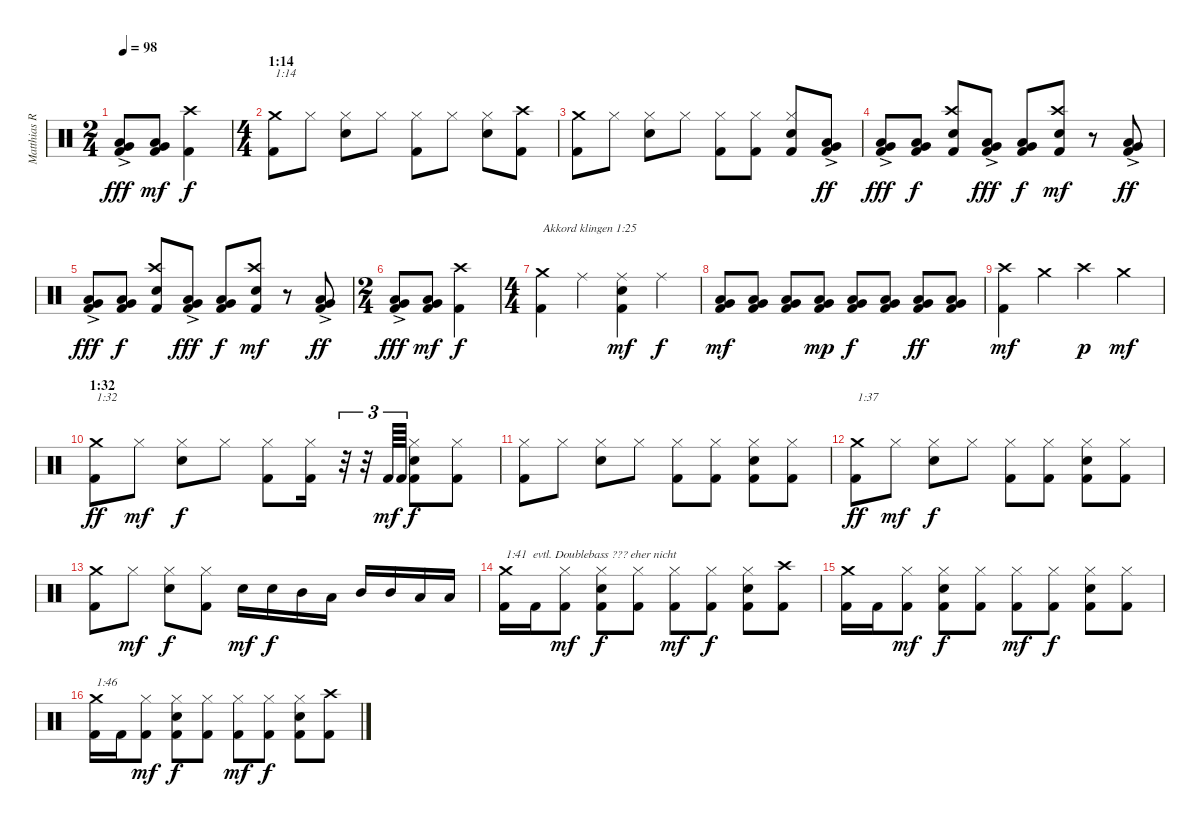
\track ("Matthias R." "Matthias R") {instrument percussion}
\staff {score}
\articulation defaults
\ts (2 4)
\tempo 98
\clef neutral
\ks c
("Kick (hit) 2" "Very Low Tom (hit)"{ac} "Low Tom (hit)"{ac}).8{dy fff} ("Kick (hit) 2" "Very Low Tom (hit)" "Low Tom (hit)").8{dy mf} ("Kick (hit) 2" "Crash high (hit)").4{dy f} |
\ts (4 4)
\section ("" "1:14")
("Kick (hit) 2" "Crash medium (hit)").8{txt "1:14"} "Hi-Hat (closed)".8 ("Electric Snare (hit)" "Hi-Hat (closed)").8 "Hi-Hat (closed)".8 ("Kick (hit) 2" "Hi-Hat (closed)").8 "Hi-Hat (closed)".8 ("Electric Snare (hit)" "Hi-Hat (closed)").8 ("Kick (hit) 2" "Crash high (hit)").8 |
("Kick (hit) 2" "Crash medium (hit)").8 "Hi-Hat (closed)".8 ("Electric Snare (hit)" "Hi-Hat (closed)").8 "Hi-Hat (closed)".8 ("Kick (hit) 2" "Hi-Hat (closed)").8 ("Kick (hit) 2" "Hi-Hat (closed)").8 ("Kick (hit) 2" "Electric Snare (hit)" "Hi-Hat (closed)").8 ("Kick (hit) 2" "Very Low Tom (hit)"{ac} "Low Tom (hit)"{ac}).8{dy ff} |
("Kick (hit) 2" "Very Low Tom (hit)"{ac} "Low Tom (hit)"{ac}).8{dy fff} ("Kick (hit) 2" "Very Low Tom (hit)" "Low Tom (hit)").8{dy f} ("Kick (hit) 2" "Electric Snare (hit)" "Crash high (hit)").8 ("Kick (hit) 2" "Very Low Tom (hit)"{ac} "Low Tom (hit)"{ac}).8{dy fff} ("Kick (hit) 2" "Very Low Tom (hit)" "Low Tom (hit)").8{dy f} ("Kick (hit) 2" "Electric Snare (hit)" "Crash high (hit)").8{dy mf} r.8 ("Kick (hit) 2" "Very Low Tom (hit)"{ac} "Low Tom (hit)"{ac}).8{dy ff} |
("Kick (hit) 2" "Very Low Tom (hit)"{ac} "Low Tom (hit)"{ac}).8{dy fff} ("Kick (hit) 2" "Very Low Tom (hit)" "Low Tom (hit)").8{dy f} ("Kick (hit) 2" "Electric Snare (hit)" "Crash high (hit)").8 ("Kick (hit) 2" "Very Low Tom (hit)"{ac} "Low Tom (hit)"{ac}).8{dy fff} ("Kick (hit) 2" "Very Low Tom (hit)" "Low Tom (hit)").8{dy f} ("Kick (hit) 2" "Electric Snare (hit)" "Crash high (hit)").8{dy mf} r.8 ("Kick (hit) 2" "Very Low Tom (hit)"{ac} "Low Tom (hit)"{ac}).8{dy ff} |
\ts (2 4)
("Kick (hit) 2" "Very Low Tom (hit)"{ac} "Low Tom (hit)"{ac}).8{dy fff} ("Kick (hit) 2" "Very Low Tom (hit)" "Low Tom (hit)").8{dy mf} ("Kick (hit) 2" "Crash high (hit)").4{dy f} |
\ts (4 4)
("Kick (hit) 2" "Crash medium (hit)").4{txt "Akkord klingen 1:25"} "Ride (middle)".4 ("Kick (hit) 2" "Electric Snare (hit)" "Ride (middle)").4{dy mf} "Ride (middle)".4{dy f} |
("Kick (hit) 2" "Very Low Tom (hit)" "Low Tom (hit)").8{dy mf} ("Kick (hit) 2" "Very Low Tom (hit)" "Low Tom (hit)").8 ("Kick (hit) 2" "Very Low Tom (hit)" "Low Tom (hit)").8 ("Kick (hit) 2" "Very Low Tom (hit)" "Low Tom (hit)").8{dy mp} ("Kick (hit) 2" "Very Low Tom (hit)" "Low Tom (hit)").8{dy f} ("Kick (hit) 2" "Very Low Tom (hit)" "Low Tom (hit)").8 ("Kick (hit) 2" "Very Low Tom (hit)" "Low Tom (hit)").8{dy ff} ("Kick (hit) 2" "Very Low Tom (hit)" "Low Tom (hit)").8 |
("Kick (hit) 2" "Crash high (hit)").4{dy mf} "Crash medium (hit)".4 "Crash high (hit)".4{dy p} "Crash medium (hit)".4{dy mf} |
\section ("" "1:32")
("Kick (hit) 2" "Crash medium (hit)").8{txt "1:32" dy ff} "Hi-Hat (closed)".8{dy mf} ("Electric Snare (hit)" "Hi-Hat (closed)").8{dy f} "Hi-Hat (closed)".8 ("Kick (hit) 2" "Hi-Hat (closed)").8 ("Kick (hit) 2" "Hi-Hat (closed)").16 r.32{tu (3 2)} r.32{tu (3 2)} "Kick (hit) 2".64{tu (3 2) dy mf} "Kick (hit) 2".64{tu (3 2)} ("Kick (hit) 2" "Electric Snare (hit)" "Hi-Hat (closed)").8{dy f} ("Kick (hit) 2" "Hi-Hat (closed)").8 |
("Kick (hit) 2" "Hi-Hat (closed)").8 "Hi-Hat (closed)".8 ("Electric Snare (hit)" "Hi-Hat (closed)").8 "Hi-Hat (closed)".8 ("Kick (hit) 2" "Hi-Hat (closed)").8 ("Kick (hit) 2" "Hi-Hat (closed)").8 ("Kick (hit) 2" "Electric Snare (hit)" "Hi-Hat (closed)").8 ("Kick (hit) 2" "Hi-Hat (closed)").8 |
("Kick (hit) 2" "Crash medium (hit)").8{txt "1:37" dy ff} "Hi-Hat (closed)".8{dy mf} ("Electric Snare (hit)" "Hi-Hat (closed)").8{dy f} "Hi-Hat (closed)".8 ("Kick (hit) 2" "Hi-Hat (closed)").8 ("Kick (hit) 2" "Hi-Hat (closed)").8 ("Kick (hit) 2" "Electric Snare (hit)" "Hi-Hat (closed)").8 ("Kick (hit) 2" "Hi-Hat (closed)").8 |
("Kick (hit) 2" "Crash medium (hit)").8 "Hi-Hat (closed)".8{dy mf} ("Electric Snare (hit)" "Hi-Hat (closed)").8{dy f} ("Kick (hit) 2" "Hi-Hat (closed)").8 "Electric Snare (hit)".16{dy mf} "Electric Snare (hit)".16{dy f} "Mid Tom (hit)".16 "Low Tom (hit)".16 "Mid Tom (hit)".16 "Mid Tom (hit)".16 "Low Tom (hit)".16 "Low Tom (hit)".16 |
("Kick (hit) 2" "Crash medium (hit)").16{txt "1:41  evtl. Doublebass ??? eher nicht"} "Kick (hit) 2".16 ("Kick (hit) 2" "Hi-Hat (closed)").8{dy mf} ("Kick (hit) 2" "Electric Snare (hit)" "Hi-Hat (closed)").8{dy f} ("Kick (hit) 2" "Hi-Hat (closed)").8 ("Kick (hit) 2" "Hi-Hat (closed)").8{dy mf} ("Kick (hit) 2" "Hi-Hat (closed)").8{dy f} ("Kick (hit) 2" "Electric Snare (hit)" "Hi-Hat (closed)").8 ("Kick (hit) 2" "Crash high (hit)").8 |
("Kick (hit) 2" "Crash medium (hit)").16 "Kick (hit) 2".16 ("Kick (hit) 2" "Hi-Hat (closed)").8{dy mf} ("Kick (hit) 2" "Electric Snare (hit)" "Hi-Hat (closed)").8{dy f} ("Kick (hit) 2" "Hi-Hat (closed)").8 ("Kick (hit) 2" "Hi-Hat (closed)").8{dy mf} ("Kick (hit) 2" "Hi-Hat (closed)").8{dy f} ("Kick (hit) 2" "Electric Snare (hit)" "Hi-Hat (closed)").8 ("Kick (hit) 2" "Hi-Hat (closed)").8 |
("Kick (hit) 2" "Crash medium (hit)").16{txt "1:46"} "Kick (hit) 2".16 ("Kick (hit) 2" "Hi-Hat (closed)").8{dy mf} ("Kick (hit) 2" "Electric Snare (hit)" "Hi-Hat (closed)").8{dy f} ("Kick (hit) 2" "Hi-Hat (closed)").8 ("Kick (hit) 2" "Hi-Hat (closed)").8{dy mf} ("Kick (hit) 2" "Hi-Hat (closed)").8{dy f} ("Kick (hit) 2" "Electric Snare (hit)" "Hi-Hat (closed)").8 ("Kick (hit) 2" "Crash high (hit)").8
